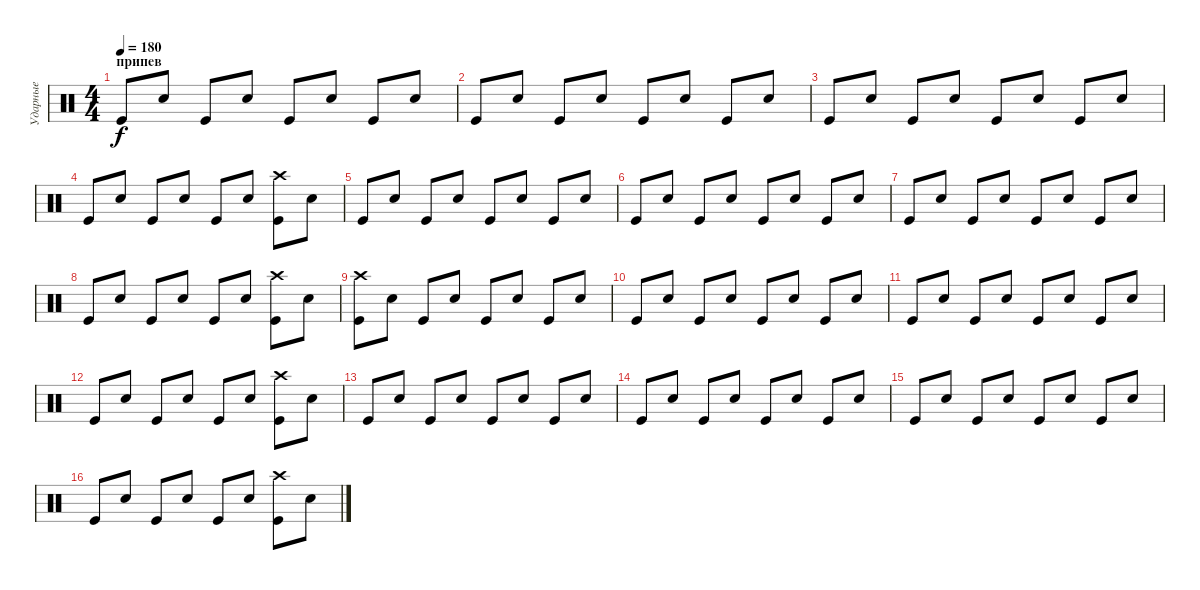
\track ("Ударные" "Ударные") {instrument percussion}
\staff {score}
\articulation defaults
\ts (4 4)
\section ("" "припев")
\tempo 180
\clef neutral
\ks c "Kick (hit)".8{dy f} "Snare (hit) 2".8 "Kick (hit)".8 "Snare (hit) 2".8 "Kick (hit)".8 "Snare (hit) 2".8 "Kick (hit)".8 "Snare (hit) 2".8
|
"Kick (hit)".8 "Snare (hit) 2".8 "Kick (hit)".8 "Snare (hit) 2".8 "Kick (hit)".8 "Snare (hit) 2".8 "Kick (hit)".8 "Snare (hit) 2".8 |
"Kick (hit)".8 "Snare (hit) 2".8 "Kick (hit)".8 "Snare (hit) 2".8 "Kick (hit)".8 "Snare (hit) 2".8 "Kick (hit)".8 "Snare (hit) 2".8 |
"Kick (hit)".8 "Snare (hit) 2".8 "Kick (hit)".8 "Snare (hit) 2".8 "Kick (hit)".8 "Snare (hit) 2".8 ("Crash high (hit)" "Kick (hit)").8 "Snare (hit) 2".8 |
"Kick (hit)".8 "Snare (hit) 2".8 "Kick (hit)".8 "Snare (hit) 2".8 "Kick (hit)".8 "Snare (hit) 2".8 "Kick (hit)".8 "Snare (hit) 2".8 |
"Kick (hit)".8 "Snare (hit) 2".8 "Kick (hit)".8 "Snare (hit) 2".8 "Kick (hit)".8 "Snare (hit) 2".8 "Kick (hit)".8 "Snare (hit) 2".8 |
"Kick (hit)".8 "Snare (hit) 2".8 "Kick (hit)".8 "Snare (hit) 2".8 "Kick (hit)".8 "Snare (hit) 2".8 "Kick (hit)".8 "Snare (hit) 2".8 |
"Kick (hit)".8 "Snare (hit) 2".8 "Kick (hit)".8 "Snare (hit) 2".8 "Kick (hit)".8 "Snare (hit) 2".8 ("Crash high (hit)" "Kick (hit)").8 "Snare (hit) 2".8 |
("Crash high (hit)" "Kick (hit)").8 "Snare (hit) 2".8 "Kick (hit)".8 "Snare (hit) 2".8 "Kick (hit)".8 "Snare (hit) 2".8 "Kick (hit)".8 "Snare (hit) 2".8 |
"Kick (hit)".8 "Snare (hit) 2".8 "Kick (hit)".8 "Snare (hit) 2".8 "Kick (hit)".8 "Snare (hit) 2".8 "Kick (hit)".8 "Snare (hit) 2".8 |
"Kick (hit)".8 "Snare (hit) 2".8 "Kick (hit)".8 "Snare (hit) 2".8 "Kick (hit)".8 "Snare (hit) 2".8 "Kick (hit)".8 "Snare (hit) 2".8 |
"Kick (hit)".8 "Snare (hit) 2".8 "Kick (hit)".8 "Snare (hit) 2".8 "Kick (hit)".8 "Snare (hit) 2".8 ("Crash high (hit)" "Kick (hit)").8 "Snare (hit) 2".8 |
"Kick (hit)".8 "Snare (hit) 2".8 "Kick (hit)".8 "Snare (hit) 2".8 "Kick (hit)".8 "Snare (hit) 2".8 "Kick (hit)".8 "Snare (hit) 2".8 |
"Kick (hit)".8 "Snare (hit) 2".8 "Kick (hit)".8 "Snare (hit) 2".8 "Kick (hit)".8 "Snare (hit) 2".8 "Kick (hit)".8 "Snare (hit) 2".8 |
"Kick (hit)".8 "Snare (hit) 2".8 "Kick (hit)".8 "Snare (hit) 2".8 "Kick (hit)".8 "Snare (hit) 2".8 "Kick (hit)".8 "Snare (hit) 2".8 |
"Kick (hit)".8 "Snare (hit) 2".8 "Kick (hit)".8 "Snare (hit) 2".8 "Kick (hit)".8 "Snare (hit) 2".8 ("Crash high (hit)" "Kick (hit)").8 "Snare (hit) 2".8
